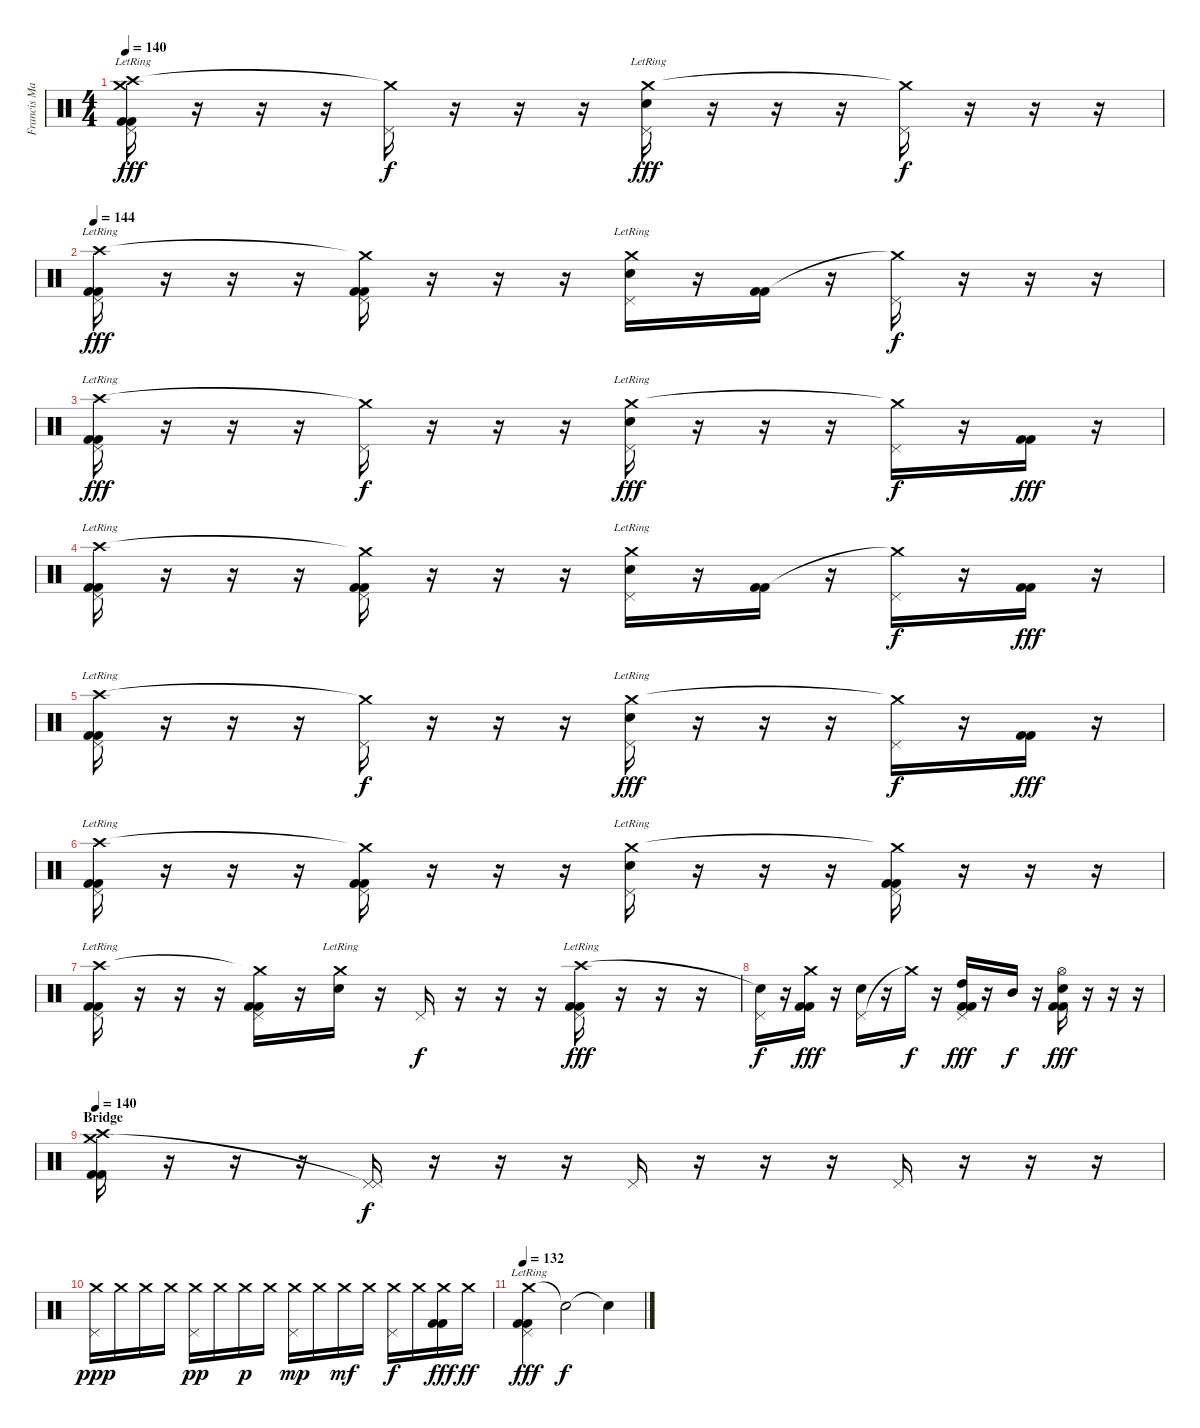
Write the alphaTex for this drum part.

\track ("Francis Mark" "Francis Ma") {instrument percussion}
\staff {score}
\articulation defaults
\ts (4 4)
\tempo 140
\clef neutral
\ks c
("Crash high (hit)"{lr} "Crash medium (hit)"{lr} "Pedal Hi-Hat (hit)" "Kick (hit) 2" "Kick (hit) 2").16{dy fff} r.16 r.16 r.16 ("Crash medium (hit)"{t} "Pedal Hi-Hat (hit)").16{dy f} r.16 r.16 r.16 ("Crash medium (hit)"{lr} "Pedal Hi-Hat (hit)" "Electric Snare (hit)").16{dy fff} r.16 r.16 r.16 ("Crash medium (hit)"{t} "Pedal Hi-Hat (hit)").16{dy f} r.16 r.16 r.16 |
\tempo 144
("Crash high (hit)"{lr} "Pedal Hi-Hat (hit)" "Kick (hit) 2" "Kick (hit) 2").16{dy fff} r.16 r.16 r.16 ("Crash medium (hit)"{t} "Pedal Hi-Hat (hit)" "Kick (hit) 2" "Kick (hit) 2").16 r.16 r.16 r.16 ("Crash medium (hit)"{lr} "Pedal Hi-Hat (hit)" "Electric Snare (hit)").16 r.16 ("Kick (hit) 2" "Kick (hit) 2").16 r.16 ("Crash medium (hit)"{t} "Pedal Hi-Hat (hit)").16{dy f} r.16 r.16 r.16 |
("Crash high (hit)"{lr} "Pedal Hi-Hat (hit)" "Kick (hit) 2" "Kick (hit) 2").16{dy fff} r.16 r.16 r.16 ("Crash medium (hit)"{t} "Pedal Hi-Hat (hit)").16{dy f} r.16 r.16 r.16 ("Crash medium (hit)"{lr} "Pedal Hi-Hat (hit)" "Electric Snare (hit)").16{dy fff} r.16 r.16 r.16 ("Crash medium (hit)"{t} "Pedal Hi-Hat (hit)").16{dy f} r.16 ("Kick (hit) 2" "Kick (hit) 2").16{dy fff} r.16 |
("Crash high (hit)"{lr} "Pedal Hi-Hat (hit)" "Kick (hit) 2" "Kick (hit) 2").16 r.16 r.16 r.16 ("Crash medium (hit)"{t} "Pedal Hi-Hat (hit)" "Kick (hit) 2" "Kick (hit) 2").16 r.16 r.16 r.16 ("Crash medium (hit)"{lr} "Pedal Hi-Hat (hit)" "Electric Snare (hit)").16 r.16 ("Kick (hit) 2" "Kick (hit) 2").16 r.16 ("Crash medium (hit)"{t} "Pedal Hi-Hat (hit)").16{dy f} r.16 ("Kick (hit) 2" "Kick (hit) 2").16{dy fff} r.16 |
("Crash high (hit)"{lr} "Pedal Hi-Hat (hit)" "Kick (hit) 2" "Kick (hit) 2").16 r.16 r.16 r.16 ("Crash medium (hit)"{t} "Pedal Hi-Hat (hit)").16{dy f} r.16 r.16 r.16 ("Crash medium (hit)"{lr} "Pedal Hi-Hat (hit)" "Electric Snare (hit)").16{dy fff} r.16 r.16 r.16 ("Crash medium (hit)"{t} "Pedal Hi-Hat (hit)").16{dy f} r.16 ("Kick (hit) 2" "Kick (hit) 2").16{dy fff} r.16 |
("Crash high (hit)"{lr} "Pedal Hi-Hat (hit)" "Kick (hit) 2" "Kick (hit) 2").16 r.16 r.16 r.16 ("Crash medium (hit)"{t} "Pedal Hi-Hat (hit)" "Kick (hit) 2" "Kick (hit) 2").16 r.16 r.16 r.16 ("Crash medium (hit)"{lr} "Pedal Hi-Hat (hit)" "Electric Snare (hit)").16 r.16 r.16 r.16 ("Crash medium (hit)"{t} "Pedal Hi-Hat (hit)" "Kick (hit) 2" "Kick (hit) 2").16 r.16 r.16 r.16 |
("Crash high (hit)"{lr} "Pedal Hi-Hat (hit)" "Kick (hit) 2" "Kick (hit) 2").16 r.16 r.16 r.16 ("Crash medium (hit)"{t} "Pedal Hi-Hat (hit)" "Kick (hit) 2" "Kick (hit) 2").16 r.16 ("Crash medium (hit)"{lr} "Electric Snare (hit)").16 r.16 "Pedal Hi-Hat (hit)".16{dy f} r.16 r.16 r.16 ("Crash high (hit)"{lr} "Pedal Hi-Hat (hit)" "Kick (hit) 2" "Kick (hit) 2").16{dy fff} r.16 r.16 r.16 |
("Snare (hit)"{t} "Pedal Hi-Hat (hit)").16{dy f} r.16 ("Crash medium (hit)" "Kick (hit) 2" "Kick (hit) 2").16{dy fff} r.16 ("Pedal Hi-Hat (hit)" "Electric Snare (hit)").16 r.16 "Crash medium (hit)"{t}.16{dy f} r.16 ("High Tom (hit)" "Pedal Hi-Hat (hit)" "Kick (hit) 2" "Kick (hit) 2").16{dy fff} r.16 "Mid Tom (hit)".16{dy f} r.16 ("Hi-Hat (open)" "Electric Snare (hit)" "Kick (hit) 2" "Kick (hit) 2").16{dy fff} r.16 r.16 r.16 |
\section ("" "Bridge")
\tempo 140
("Crash medium (hit)" "Crash high (hit)" "Kick (hit) 2" "Kick (hit) 2").16 r.16 r.16 r.16 ("Pedal Hi-Hat (hit)"{t} "Pedal Hi-Hat (hit)").16{dy f} r.16 r.16 r.16 "Pedal Hi-Hat (hit)".16 r.16 r.16 r.16 "Pedal Hi-Hat (hit)".16 r.16 r.16 r.16 |
("Crash medium (hit)" "Pedal Hi-Hat (hit)").16{dy ppp} "Crash medium (hit)".16 "Crash medium (hit)".16 "Crash medium (hit)".16 ("Crash medium (hit)" "Pedal Hi-Hat (hit)").16{dy pp} "Crash medium (hit)".16 "Crash medium (hit)".16{dy p} "Crash medium (hit)".16 ("Crash medium (hit)" "Pedal Hi-Hat (hit)").16{dy mp} "Crash medium (hit)".16 "Crash medium (hit)".16{dy mf} "Crash medium (hit)".16 ("Crash medium (hit)" "Pedal Hi-Hat (hit)").16{dy f} "Crash medium (hit)".16 ("Crash medium (hit)" "Kick (hit) 2" "Kick (hit) 2").16{dy fff} "Crash medium (hit)".16{dy ff} |
\tempo 132
("Crash medium (hit)"{lr} "Pedal Hi-Hat (hit)" "Kick (hit) 2" "Kick (hit) 2").4{dy fff} "Snare (hit)"{t}.2{dy f} "Snare (hit)"{t}.4
